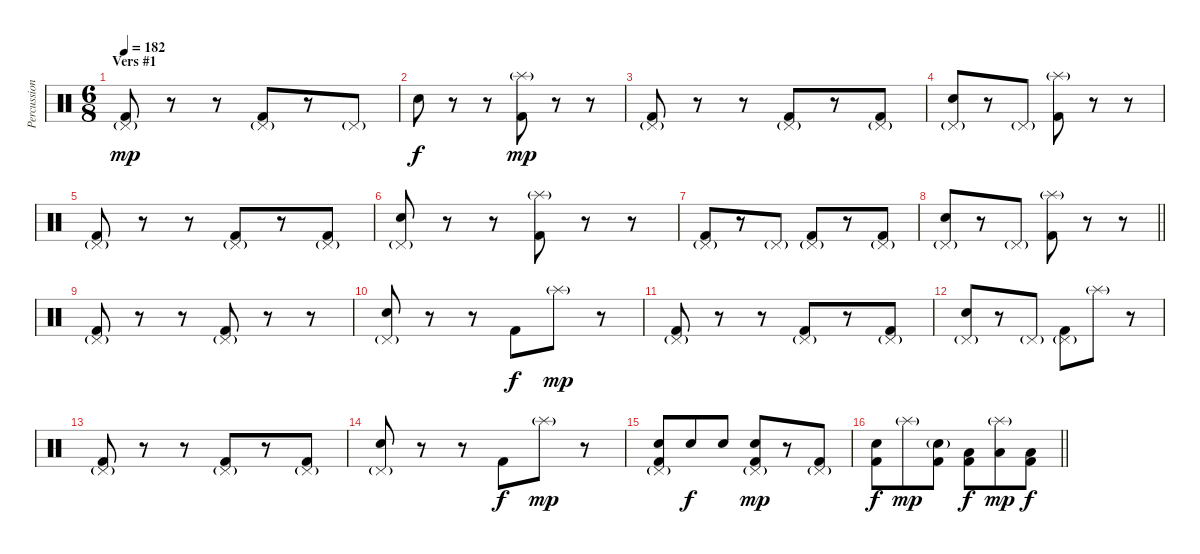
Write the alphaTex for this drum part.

\track ("Percussion" "Percussion") {instrument percussion}
\staff {score}
\articulation defaults
\ts (6 8)
\section ("" "Vers #1")
\tempo 182
\clef neutral
\ks c
("Kick (hit) 2" "Pedal Hi-Hat (hit)"{g}).8{dy mp} r.8 r.8 ("Kick (hit) 2" "Pedal Hi-Hat (hit)"{g}).8 r.8 "Pedal Hi-Hat (hit)"{g}.8 |
"Snare (hit) 2".8{dy f} r.8 r.8 ("Kick (hit) 2" "Splash (hit)"{g}).8{dy mp} r.8 r.8 |
("Kick (hit) 2" "Pedal Hi-Hat (hit)"{g}).8 r.8 r.8 ("Kick (hit) 2" "Pedal Hi-Hat (hit)"{g}).8 r.8 ("Kick (hit) 2" "Pedal Hi-Hat (hit)"{g}).8 |
("Snare (hit) 2" "Pedal Hi-Hat (hit)"{g}).8 r.8 "Pedal Hi-Hat (hit)"{g}.8 ("Kick (hit) 2" "Splash (hit)"{g}).8 r.8 r.8 |
("Kick (hit) 2" "Pedal Hi-Hat (hit)"{g}).8 r.8 r.8 ("Kick (hit) 2" "Pedal Hi-Hat (hit)"{g}).8 r.8 ("Kick (hit) 2" "Pedal Hi-Hat (hit)"{g}).8 |
("Snare (hit) 2" "Pedal Hi-Hat (hit)"{g}).8 r.8 r.8 ("Kick (hit) 2" "Splash (hit)"{g}).8 r.8 r.8 |
("Kick (hit) 2" "Pedal Hi-Hat (hit)"{g}).8 r.8 "Pedal Hi-Hat (hit)"{g}.8 ("Kick (hit) 2" "Pedal Hi-Hat (hit)"{g}).8 r.8 ("Kick (hit) 2" "Pedal Hi-Hat (hit)"{g}).8 |
\barLineRight lightlight
("Snare (hit) 2" "Pedal Hi-Hat (hit)"{g}).8 r.8 "Pedal Hi-Hat (hit)"{g}.8 ("Kick (hit) 2" "Splash (hit)"{g}).8 r.8 r.8 |
("Kick (hit) 2" "Pedal Hi-Hat (hit)"{g}).8 r.8 r.8 ("Kick (hit) 2" "Pedal Hi-Hat (hit)"{g}).8 r.8 r.8 |
("Snare (hit) 2" "Pedal Hi-Hat (hit)"{g}).8 r.8 r.8 "Kick (hit) 2".8{dy f} "Splash (hit)"{g}.8{dy mp} r.8 |
("Kick (hit) 2" "Pedal Hi-Hat (hit)"{g}).8 r.8 r.8 ("Kick (hit) 2" "Pedal Hi-Hat (hit)"{g}).8 r.8 ("Kick (hit) 2" "Pedal Hi-Hat (hit)"{g}).8 |
("Snare (hit) 2" "Pedal Hi-Hat (hit)"{g}).8 r.8 "Pedal Hi-Hat (hit)"{g}.8 ("Kick (hit) 2" "Pedal Hi-Hat (hit)"{g}).8 "Splash (hit)"{g}.8 r.8 |
("Kick (hit) 2" "Pedal Hi-Hat (hit)"{g}).8 r.8 r.8 ("Kick (hit) 2" "Pedal Hi-Hat (hit)"{g}).8 r.8 ("Kick (hit) 2" "Pedal Hi-Hat (hit)"{g}).8 |
("Snare (hit) 2" "Pedal Hi-Hat (hit)"{g}).8 r.8 r.8 "Kick (hit) 2".8{dy f} "Splash (hit)"{g}.8{dy mp} r.8 |
("Kick (hit) 2" "Snare (hit) 2" "Pedal Hi-Hat (hit)"{g}).8 "Snare (hit) 2".8{dy f} "Snare (hit) 2".8 ("Kick (hit) 2" "Snare (hit) 2" "Pedal Hi-Hat (hit)"{g}).8{dy mp} r.8 ("Kick (hit) 2" "Pedal Hi-Hat (hit)"{g}).8 |
\barLineRight lightlight
("Kick (hit) 2" "Snare (hit) 2").8{dy f} "Splash (hit)"{g}.8{dy mp} ("Kick (hit) 2" "Snare (hit) 2"{g}).8 ("Kick (hit) 2" "Low Tom (hit)").8{dy f} ("Low Tom (hit)" "Splash (hit)"{g}).8{dy mp} ("Kick (hit) 2" "Low Tom (hit)").8{dy f}
